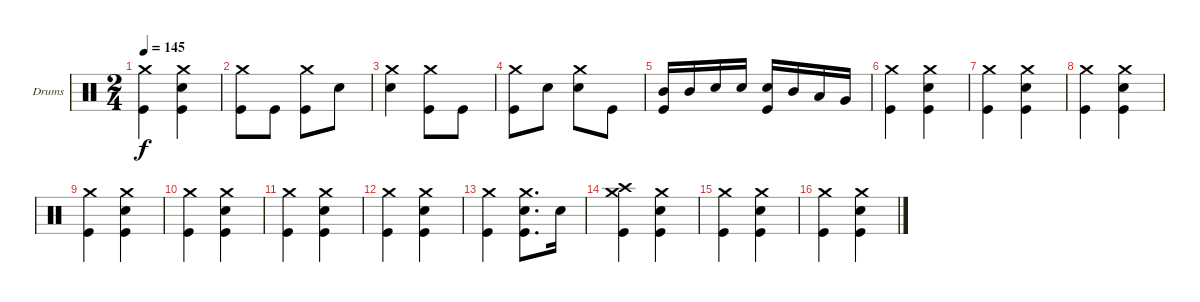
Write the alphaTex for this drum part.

\bracketExtendMode groupsimilarinstruments
\firstSystemTrackNameOrientation horizontal
\otherSystemsTrackNameOrientation horizontal
\track ("Drumkit" "Drums") {instrument percussion}
\staff {score}
\articulation defaults
\ts (2 4)
\tempo 145
\clef neutral
\ks c
("Crash medium (hit)" "Kick (hit)").4{dy f} ("Crash medium (hit)" "Snare (hit) 2" "Kick (hit)").4 |
("Kick (hit)" "Crash medium (hit)").8 "Kick (hit)".8 ("Kick (hit)" "Crash medium (hit)").8 "Snare (hit) 2".8 |
("Snare (hit) 2" "Crash medium (hit)").4 ("Kick (hit)" "Crash medium (hit)").8 "Kick (hit)".8 |
("Kick (hit)" "Crash medium (hit)").8 "Snare (hit) 2".8 ("Snare (hit) 2" "Crash medium (hit)").8 "Kick (hit)".8 |
("Mid Tom (hit)" "Kick (hit)").16 "Mid Tom (hit)".16 "Snare (hit) 2".16 "Snare (hit) 2".16 ("Snare (hit) 2" "Kick (hit)").16 "Mid Tom (hit)".16 "Low Tom (hit)".16 "Very Low Tom (hit)".16 |
("Crash medium (hit)" "Kick (hit)").4 ("Crash medium (hit)" "Snare (hit) 2" "Kick (hit)").4 |
("Crash medium (hit)" "Kick (hit)").4 ("Crash medium (hit)" "Snare (hit) 2" "Kick (hit)").4 |
("Crash medium (hit)" "Kick (hit)").4 ("Crash medium (hit)" "Snare (hit) 2" "Kick (hit)").4 |
("Crash medium (hit)" "Kick (hit)").4 ("Crash medium (hit)" "Snare (hit) 2" "Kick (hit)").4 |
("Crash medium (hit)" "Kick (hit)").4 ("Crash medium (hit)" "Snare (hit) 2" "Kick (hit)").4 |
("Crash medium (hit)" "Kick (hit)").4 ("Crash medium (hit)" "Snare (hit) 2" "Kick (hit)").4 |
("Crash medium (hit)" "Kick (hit)").4 ("Crash medium (hit)" "Snare (hit) 2" "Kick (hit)").4 |
("Crash medium (hit)" "Kick (hit)").4 ("Crash medium (hit)" "Snare (hit) 2" "Kick (hit)").8{d} "Snare (hit) 2".16 |
("Crash medium (hit)" "Crash high (hit)" "Kick (hit)").4 ("Crash medium (hit)" "Snare (hit) 2" "Kick (hit)").4 |
("Crash medium (hit)" "Kick (hit)").4 ("Crash medium (hit)" "Snare (hit) 2" "Kick (hit)").4 |
("Crash medium (hit)" "Kick (hit)").4 ("Crash medium (hit)" "Snare (hit) 2" "Kick (hit)").4
